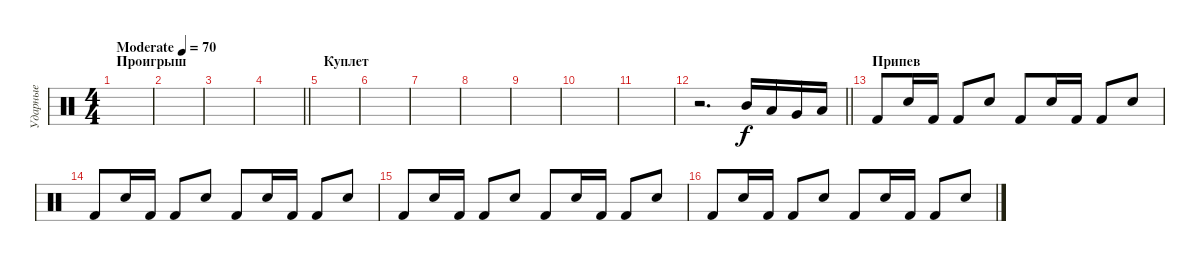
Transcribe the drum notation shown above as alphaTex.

\track ("Ударные" "Ударные") {instrument percussion}
\staff {score}
\articulation defaults
\ts (4 4)
\section ("" "Проигрыш")
\tempo (70 "Moderate")
\clef neutral
\ks c
|
|
|
\barLineRight lightlight
|
\section ("" "Куплет")
|
|
|
|
|
|
|
\barLineRight lightlight
r.2{d} "Mid Tom (hit)".16 "Low Tom (hit)".16 "Very Low Tom (hit)".16 "Low Floor Tom (hit)".16 |
\section ("" "Припев")
"Kick (hit) 2".8 "Electric Snare (hit)".16 "Kick (hit) 2".16 "Kick (hit) 2".8 "Electric Snare (hit)".8 "Kick (hit) 2".8 "Electric Snare (hit)".16 "Kick (hit) 2".16 "Kick (hit) 2".8 "Electric Snare (hit)".8 |
"Kick (hit) 2".8 "Electric Snare (hit)".16 "Kick (hit) 2".16 "Kick (hit) 2".8 "Electric Snare (hit)".8 "Kick (hit) 2".8 "Electric Snare (hit)".16 "Kick (hit) 2".16 "Kick (hit) 2".8 "Electric Snare (hit)".8 |
"Kick (hit) 2".8 "Electric Snare (hit)".16 "Kick (hit) 2".16 "Kick (hit) 2".8 "Electric Snare (hit)".8 "Kick (hit) 2".8 "Electric Snare (hit)".16 "Kick (hit) 2".16 "Kick (hit) 2".8 "Electric Snare (hit)".8 |
"Kick (hit) 2".8 "Electric Snare (hit)".16 "Kick (hit) 2".16 "Kick (hit) 2".8 "Electric Snare (hit)".8 "Kick (hit) 2".8 "Electric Snare (hit)".16 "Kick (hit) 2".16 "Kick (hit) 2".8 "Electric Snare (hit)".8
